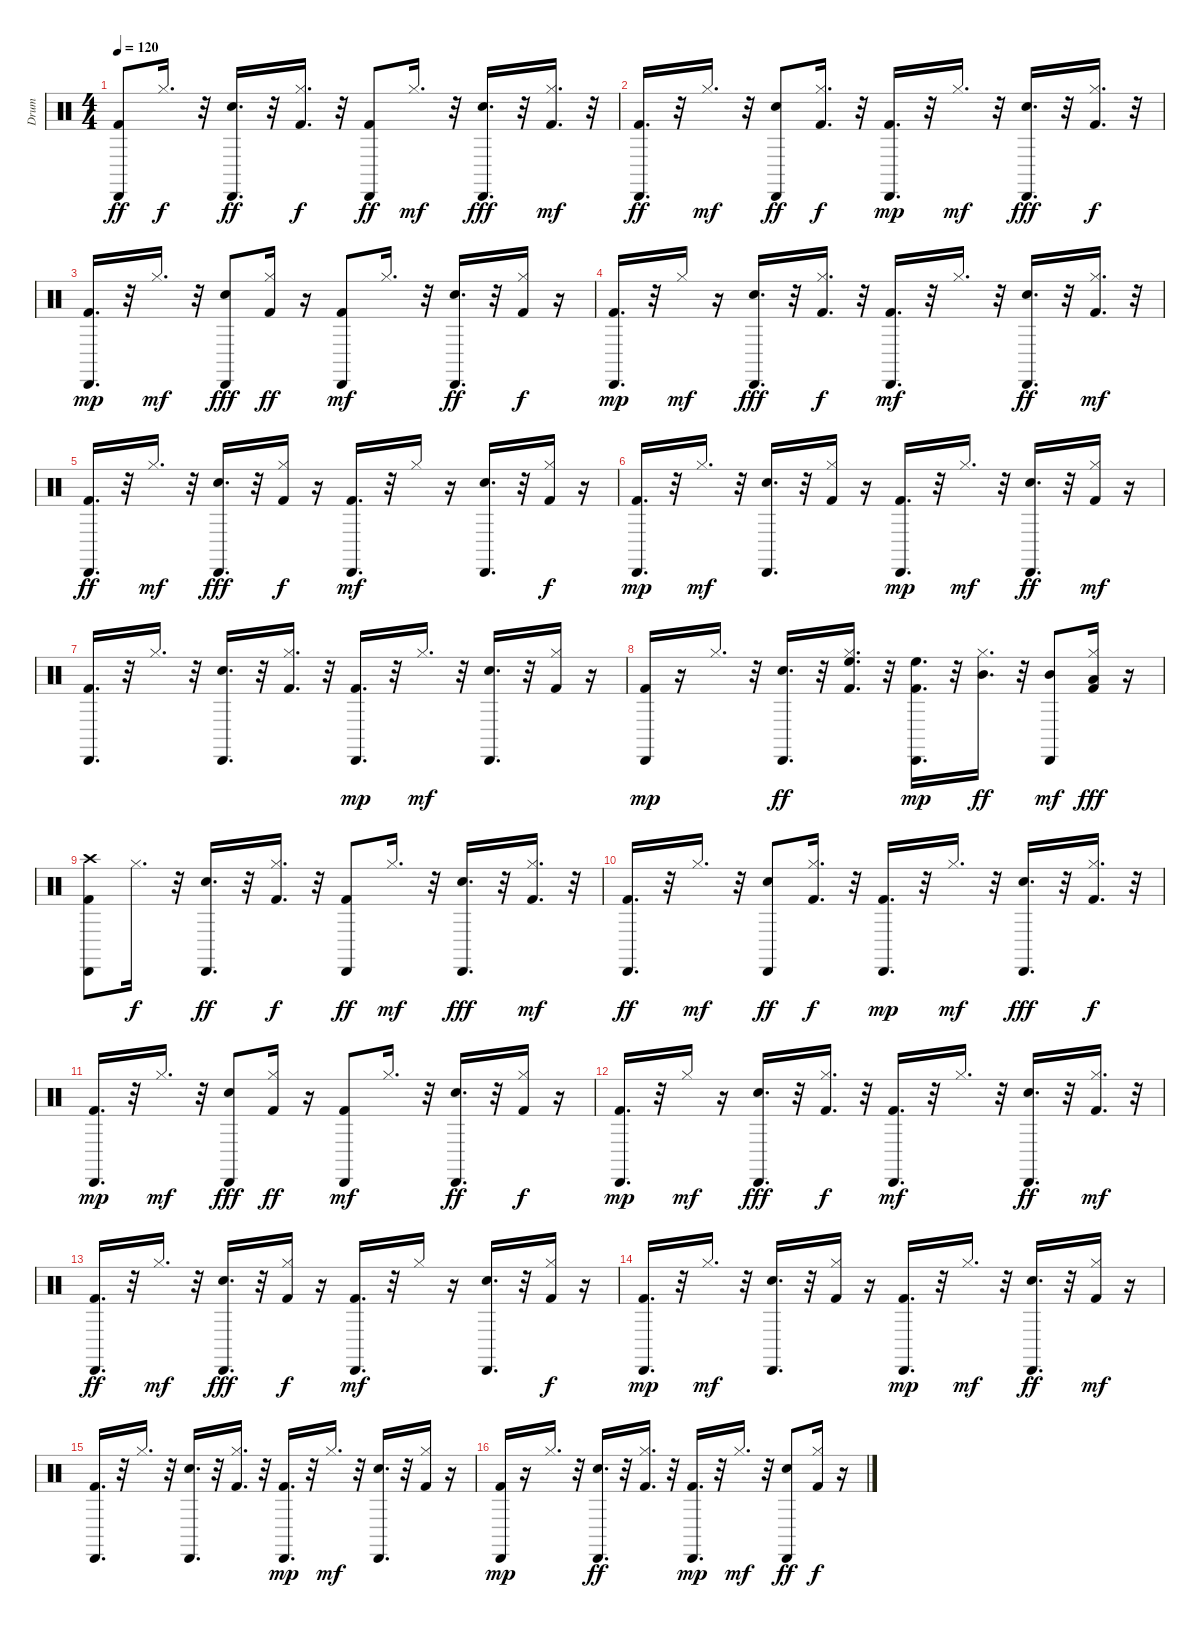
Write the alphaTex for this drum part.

\track ("Drum" "Drum") {instrument percussion}
\staff {score}
\articulation defaults
\ts (4 4)
\tempo 120
\clef neutral
\ks c
("Kick (hit) 2" "Cabasa (hit)").8{dy ff} "Hi-Hat (closed)".16{d dy f} r.32 ("Snare (hit) 2" "Cabasa (hit)").16{d dy ff} r.32 ("Hi-Hat (closed)" "Kick (hit) 2").16{d dy f} r.32 ("Cabasa (hit)" "Kick (hit) 2").8{dy ff} "Hi-Hat (closed)".16{d dy mf} r.32 ("Cabasa (hit)" "Snare (hit) 2").16{d dy fff} r.32 ("Hi-Hat (closed)" "Kick (hit) 2").16{d dy mf} r.32 |
("Cabasa (hit)" "Kick (hit) 2").16{d dy ff} r.32 "Hi-Hat (closed)".16{d dy mf} r.32 ("Snare (hit) 2" "Cabasa (hit)").8{dy ff} ("Kick (hit) 2" "Hi-Hat (closed)").16{d dy f} r.32 ("Kick (hit) 2" "Cabasa (hit)").16{d dy mp} r.32 "Hi-Hat (closed)".16{d dy mf} r.32 ("Snare (hit) 2" "Cabasa (hit)").16{d dy fff} r.32 ("Hi-Hat (closed)" "Kick (hit) 2").16{d dy f} r.32 |
("Kick (hit) 2" "Cabasa (hit)").16{d dy mp} r.32 "Hi-Hat (closed)".16{d dy mf} r.32 ("Snare (hit) 2" "Cabasa (hit)").8{dy fff} ("Kick (hit) 2" "Hi-Hat (closed)").16{dy ff} r.16 ("Kick (hit) 2" "Cabasa (hit)").8{dy mf} "Hi-Hat (closed)".16{d} r.32 ("Snare (hit) 2" "Cabasa (hit)").16{d dy ff} r.32 ("Kick (hit) 2" "Hi-Hat (closed)").16{dy f} r.16 |
("Cabasa (hit)" "Kick (hit) 2").16{d dy mp} r.32 "Hi-Hat (closed)".16{dy mf} r.16 ("Snare (hit) 2" "Cabasa (hit)").16{d dy fff} r.32 ("Hi-Hat (closed)" "Kick (hit) 2").16{d dy f} r.32 ("Kick (hit) 2" "Cabasa (hit)").16{d dy mf} r.32 "Hi-Hat (closed)".16{d} r.32 ("Cabasa (hit)" "Snare (hit) 2").16{d dy ff} r.32 ("Kick (hit) 2" "Hi-Hat (closed)").16{d dy mf} r.32 |
("Cabasa (hit)" "Kick (hit) 2").16{d dy ff} r.32 "Hi-Hat (closed)".16{d dy mf} r.32 ("Snare (hit) 2" "Cabasa (hit)").16{d dy fff} r.32 ("Kick (hit) 2" "Hi-Hat (closed)").16{dy f} r.16 ("Kick (hit) 2" "Cabasa (hit)").16{d dy mf} r.32 "Hi-Hat (closed)".16 r.16 ("Snare (hit) 2" "Cabasa (hit)").16{d} r.32 ("Kick (hit) 2" "Hi-Hat (closed)").16{dy f} r.16 |
("Kick (hit) 2" "Cabasa (hit)").16{d dy mp} r.32 "Hi-Hat (closed)".16{d dy mf} r.32 ("Snare (hit) 2" "Cabasa (hit)").16{d} r.32 ("Hi-Hat (closed)" "Kick (hit) 2").16 r.16 ("Kick (hit) 2" "Cabasa (hit)").16{d dy mp} r.32 "Hi-Hat (closed)".16{d dy mf} r.32 ("Snare (hit) 2" "Cabasa (hit)").16{d dy ff} r.32 ("Kick (hit) 2" "Hi-Hat (closed)").16{dy mf} r.16 |
("Kick (hit) 2" "Cabasa (hit)").16{d} r.32 "Hi-Hat (closed)".16{d} r.32 ("Snare (hit) 2" "Cabasa (hit)").16{d} r.32 ("Kick (hit) 2" "Hi-Hat (closed)").16{d} r.32 ("Kick (hit) 2" "Cabasa (hit)").16{d dy mp} r.32 "Hi-Hat (closed)".16{d dy mf} r.32 ("Snare (hit) 2" "Cabasa (hit)").16{d} r.32 ("Kick (hit) 2" "Hi-Hat (closed)").16 r.16 |
("Kick (hit) 2" "Cabasa (hit)").16{dy mp} r.16 "Hi-Hat (closed)".16{d} r.32 ("Snare (hit) 2" "Cabasa (hit)").16{d dy ff} r.32 ("Hi-Hat (closed)" "High Floor Tom (hit)" "Kick (hit) 2").16{d} r.32 ("Kick (hit) 2" "High Floor Tom (hit)" "Cabasa (hit)").16{d dy mp} r.32 ("Hi-Hat (closed)" "Mid Tom (hit)").16{d dy ff} r.32 ("Mid Tom (hit)" "Cabasa (hit)").8{dy mf} ("Low Tom (hit)" "Hi-Hat (closed)" "Kick (hit) 2").16{dy fff} r.16 |
("Kick (hit) 2" "Cabasa (hit)" "Crash high (hit)").8 "Hi-Hat (closed)".16{d dy f} r.32 ("Snare (hit) 2" "Cabasa (hit)").16{d dy ff} r.32 ("Hi-Hat (closed)" "Kick (hit) 2").16{d dy f} r.32 ("Cabasa (hit)" "Kick (hit) 2").8{dy ff} "Hi-Hat (closed)".16{d dy mf} r.32 ("Cabasa (hit)" "Snare (hit) 2").16{d dy fff} r.32 ("Hi-Hat (closed)" "Kick (hit) 2").16{d dy mf} r.32 |
("Cabasa (hit)" "Kick (hit) 2").16{d dy ff} r.32 "Hi-Hat (closed)".16{d dy mf} r.32 ("Snare (hit) 2" "Cabasa (hit)").8{dy ff} ("Kick (hit) 2" "Hi-Hat (closed)").16{d dy f} r.32 ("Kick (hit) 2" "Cabasa (hit)").16{d dy mp} r.32 "Hi-Hat (closed)".16{d dy mf} r.32 ("Snare (hit) 2" "Cabasa (hit)").16{d dy fff} r.32 ("Hi-Hat (closed)" "Kick (hit) 2").16{d dy f} r.32 |
("Kick (hit) 2" "Cabasa (hit)").16{d dy mp} r.32 "Hi-Hat (closed)".16{d dy mf} r.32 ("Snare (hit) 2" "Cabasa (hit)").8{dy fff} ("Kick (hit) 2" "Hi-Hat (closed)").16{dy ff} r.16 ("Kick (hit) 2" "Cabasa (hit)").8{dy mf} "Hi-Hat (closed)".16{d} r.32 ("Snare (hit) 2" "Cabasa (hit)").16{d dy ff} r.32 ("Kick (hit) 2" "Hi-Hat (closed)").16{dy f} r.16 |
("Cabasa (hit)" "Kick (hit) 2").16{d dy mp} r.32 "Hi-Hat (closed)".16{dy mf} r.16 ("Snare (hit) 2" "Cabasa (hit)").16{d dy fff} r.32 ("Hi-Hat (closed)" "Kick (hit) 2").16{d dy f} r.32 ("Kick (hit) 2" "Cabasa (hit)").16{d dy mf} r.32 "Hi-Hat (closed)".16{d} r.32 ("Cabasa (hit)" "Snare (hit) 2").16{d dy ff} r.32 ("Kick (hit) 2" "Hi-Hat (closed)").16{d dy mf} r.32 |
("Cabasa (hit)" "Kick (hit) 2").16{d dy ff} r.32 "Hi-Hat (closed)".16{d dy mf} r.32 ("Snare (hit) 2" "Cabasa (hit)").16{d dy fff} r.32 ("Kick (hit) 2" "Hi-Hat (closed)").16{dy f} r.16 ("Kick (hit) 2" "Cabasa (hit)").16{d dy mf} r.32 "Hi-Hat (closed)".16 r.16 ("Snare (hit) 2" "Cabasa (hit)").16{d} r.32 ("Kick (hit) 2" "Hi-Hat (closed)").16{dy f} r.16 |
("Kick (hit) 2" "Cabasa (hit)").16{d dy mp} r.32 "Hi-Hat (closed)".16{d dy mf} r.32 ("Snare (hit) 2" "Cabasa (hit)").16{d} r.32 ("Hi-Hat (closed)" "Kick (hit) 2").16 r.16 ("Kick (hit) 2" "Cabasa (hit)").16{d dy mp} r.32 "Hi-Hat (closed)".16{d dy mf} r.32 ("Snare (hit) 2" "Cabasa (hit)").16{d dy ff} r.32 ("Kick (hit) 2" "Hi-Hat (closed)").16{dy mf} r.16 |
("Kick (hit) 2" "Cabasa (hit)").16{d} r.32 "Hi-Hat (closed)".16{d} r.32 ("Snare (hit) 2" "Cabasa (hit)").16{d} r.32 ("Kick (hit) 2" "Hi-Hat (closed)").16{d} r.32 ("Kick (hit) 2" "Cabasa (hit)").16{d dy mp} r.32 "Hi-Hat (closed)".16{d dy mf} r.32 ("Snare (hit) 2" "Cabasa (hit)").16{d} r.32 ("Kick (hit) 2" "Hi-Hat (closed)").16 r.16 |
("Kick (hit) 2" "Cabasa (hit)").16{dy mp} r.16 "Hi-Hat (closed)".16{d} r.32 ("Snare (hit) 2" "Cabasa (hit)").16{d dy ff} r.32 ("Hi-Hat (closed)" "Kick (hit) 2").16{d} r.32 ("Kick (hit) 2" "Cabasa (hit)").16{d dy mp} r.32 "Hi-Hat (closed)".16{d dy mf} r.32 ("Cabasa (hit)" "Snare (hit) 2").8{dy ff} ("Kick (hit) 2" "Hi-Hat (closed)").16{dy f} r.16
